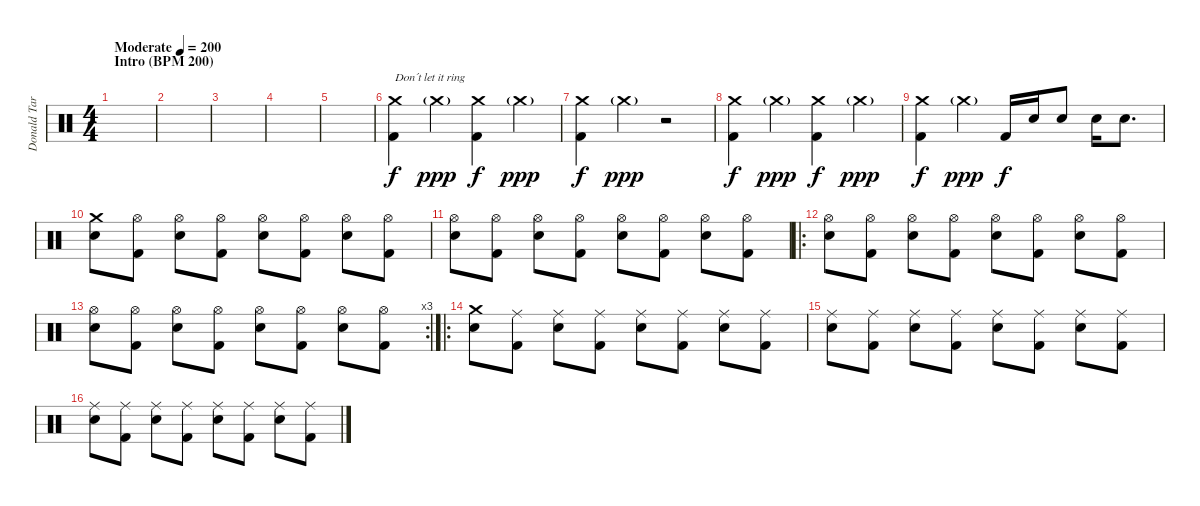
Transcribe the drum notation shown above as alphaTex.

\track ("Donald Tardy" "Donald Tar") {instrument percussion}
\staff {score}
\articulation defaults
\ts (4 4)
\section ("" "Intro (BPM 200)")
\tempo (200 "Moderate")
\clef neutral
\ks c
|
|
|
|
|
("Crash medium (hit)" "Kick (hit) 2").4{txt "Don´t let it ring"} "Crash medium (hit)"{g}.4{dy ppp} ("Crash medium (hit)" "Kick (hit) 2").4{dy f} "Crash medium (hit)"{g}.4{dy ppp} |
("Crash medium (hit)" "Kick (hit) 2").4{dy f} "Crash medium (hit)"{g}.4{dy ppp} r.2 |
("Crash medium (hit)" "Kick (hit) 2").4{dy f} "Crash medium (hit)"{g}.4{dy ppp} ("Crash medium (hit)" "Kick (hit) 2").4{dy f} "Crash medium (hit)"{g}.4{dy ppp} |
("Crash medium (hit)" "Kick (hit) 2").4{dy f} "Crash medium (hit)"{g}.4{dy ppp} "Kick (hit) 2".16{dy f} "Snare (hit) 2".16 "Snare (hit) 2".8 "Snare (hit) 2".16 "Snare (hit) 2".8{d} |
("Crash medium (hit)" "Snare (hit) 2").8 ("Hi-Hat (open)" "Kick (hit) 2").8 ("Hi-Hat (open)" "Snare (hit) 2").8 ("Hi-Hat (open)" "Kick (hit) 2").8 ("Hi-Hat (open)" "Snare (hit) 2").8 ("Hi-Hat (open)" "Kick (hit) 2").8 ("Hi-Hat (open)" "Snare (hit) 2").8 ("Hi-Hat (open)" "Kick (hit) 2").8 |
("Hi-Hat (open)" "Snare (hit) 2").8 ("Hi-Hat (open)" "Kick (hit) 2").8 ("Hi-Hat (open)" "Snare (hit) 2").8 ("Hi-Hat (open)" "Kick (hit) 2").8 ("Hi-Hat (open)" "Snare (hit) 2").8 ("Hi-Hat (open)" "Kick (hit) 2").8 ("Hi-Hat (open)" "Snare (hit) 2").8 ("Hi-Hat (open)" "Kick (hit) 2").8 |
\ro
("Hi-Hat (open)" "Snare (hit) 2").8 ("Hi-Hat (open)" "Kick (hit) 2").8 ("Hi-Hat (open)" "Snare (hit) 2").8 ("Hi-Hat (open)" "Kick (hit) 2").8 ("Hi-Hat (open)" "Snare (hit) 2").8 ("Hi-Hat (open)" "Kick (hit) 2").8 ("Hi-Hat (open)" "Snare (hit) 2").8 ("Hi-Hat (open)" "Kick (hit) 2").8 |
\rc 3
("Hi-Hat (open)" "Snare (hit) 2").8 ("Hi-Hat (open)" "Kick (hit) 2").8 ("Hi-Hat (open)" "Snare (hit) 2").8 ("Hi-Hat (open)" "Kick (hit) 2").8 ("Hi-Hat (open)" "Snare (hit) 2").8 ("Hi-Hat (open)" "Kick (hit) 2").8 ("Hi-Hat (open)" "Snare (hit) 2").8 ("Hi-Hat (open)" "Kick (hit) 2").8 |
\ro
("Crash medium (hit)" "Snare (hit) 2").8 ("Ride (middle)" "Kick (hit) 2").8 ("Ride (middle)" "Snare (hit) 2").8 ("Ride (middle)" "Kick (hit) 2").8 ("Ride (middle)" "Snare (hit) 2").8 ("Ride (middle)" "Kick (hit) 2").8 ("Ride (middle)" "Snare (hit) 2").8 ("Ride (middle)" "Kick (hit) 2").8 |
("Ride (middle)" "Snare (hit) 2").8 ("Ride (middle)" "Kick (hit) 2").8 ("Ride (middle)" "Snare (hit) 2").8 ("Ride (middle)" "Kick (hit) 2").8 ("Ride (middle)" "Snare (hit) 2").8 ("Ride (middle)" "Kick (hit) 2").8 ("Ride (middle)" "Snare (hit) 2").8 ("Ride (middle)" "Kick (hit) 2").8 |
("Ride (middle)" "Snare (hit) 2").8 ("Ride (middle)" "Kick (hit) 2").8 ("Ride (middle)" "Snare (hit) 2").8 ("Ride (middle)" "Kick (hit) 2").8 ("Ride (middle)" "Snare (hit) 2").8 ("Ride (middle)" "Kick (hit) 2").8 ("Ride (middle)" "Snare (hit) 2").8 ("Ride (middle)" "Kick (hit) 2").8
